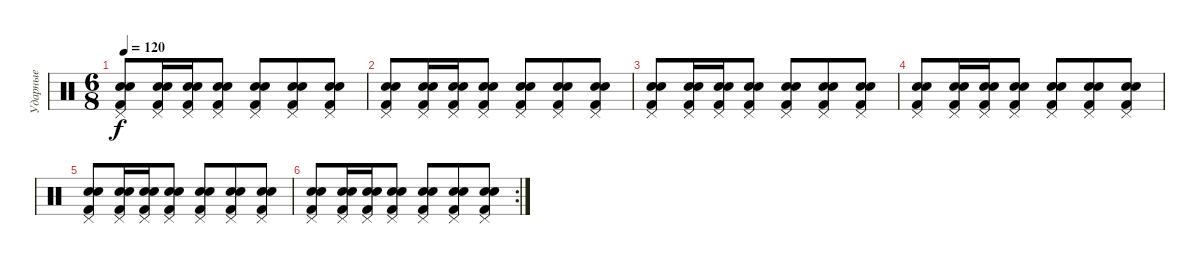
\track ("Ударные" "Ударные") {instrument percussion}
\staff {score}
\articulation defaults
\ts (6 8)
\tempo 120
\clef neutral
\ks c
("Snare (hit) 2" "Pedal Hi-Hat (hit)" "Electric Snare (hit)" "Kick (hit) 2").8{dy f} ("Snare (hit) 2" "Pedal Hi-Hat (hit)" "Electric Snare (hit)" "Kick (hit) 2").16 ("Snare (hit) 2" "Pedal Hi-Hat (hit)" "Electric Snare (hit)" "Kick (hit) 2").16 ("Snare (hit) 2" "Pedal Hi-Hat (hit)" "Electric Snare (hit)" "Kick (hit) 2").8 ("Snare (hit) 2" "Pedal Hi-Hat (hit)" "Electric Snare (hit)" "Kick (hit) 2").8 ("Snare (hit) 2" "Pedal Hi-Hat (hit)" "Electric Snare (hit)" "Kick (hit) 2").8 ("Snare (hit) 2" "Pedal Hi-Hat (hit)" "Electric Snare (hit)" "Kick (hit) 2").8 |
("Snare (hit) 2" "Pedal Hi-Hat (hit)" "Electric Snare (hit)" "Kick (hit) 2").8 ("Snare (hit) 2" "Pedal Hi-Hat (hit)" "Electric Snare (hit)" "Kick (hit) 2").16 ("Snare (hit) 2" "Pedal Hi-Hat (hit)" "Electric Snare (hit)" "Kick (hit) 2").16 ("Snare (hit) 2" "Pedal Hi-Hat (hit)" "Electric Snare (hit)" "Kick (hit) 2").8 ("Snare (hit) 2" "Pedal Hi-Hat (hit)" "Electric Snare (hit)" "Kick (hit) 2").8 ("Snare (hit) 2" "Pedal Hi-Hat (hit)" "Electric Snare (hit)" "Kick (hit) 2").8 ("Snare (hit) 2" "Pedal Hi-Hat (hit)" "Electric Snare (hit)" "Kick (hit) 2").8 |
("Snare (hit) 2" "Pedal Hi-Hat (hit)" "Electric Snare (hit)" "Kick (hit) 2").8 ("Snare (hit) 2" "Pedal Hi-Hat (hit)" "Electric Snare (hit)" "Kick (hit) 2").16 ("Snare (hit) 2" "Pedal Hi-Hat (hit)" "Electric Snare (hit)" "Kick (hit) 2").16 ("Snare (hit) 2" "Pedal Hi-Hat (hit)" "Electric Snare (hit)" "Kick (hit) 2").8 ("Snare (hit) 2" "Pedal Hi-Hat (hit)" "Electric Snare (hit)" "Kick (hit) 2").8 ("Snare (hit) 2" "Pedal Hi-Hat (hit)" "Electric Snare (hit)" "Kick (hit) 2").8 ("Snare (hit) 2" "Pedal Hi-Hat (hit)" "Electric Snare (hit)" "Kick (hit) 2").8 |
("Snare (hit) 2" "Pedal Hi-Hat (hit)" "Electric Snare (hit)" "Kick (hit) 2").8 ("Snare (hit) 2" "Pedal Hi-Hat (hit)" "Electric Snare (hit)" "Kick (hit) 2").16 ("Snare (hit) 2" "Pedal Hi-Hat (hit)" "Electric Snare (hit)" "Kick (hit) 2").16 ("Snare (hit) 2" "Pedal Hi-Hat (hit)" "Electric Snare (hit)" "Kick (hit) 2").8 ("Snare (hit) 2" "Pedal Hi-Hat (hit)" "Electric Snare (hit)" "Kick (hit) 2").8 ("Snare (hit) 2" "Pedal Hi-Hat (hit)" "Electric Snare (hit)" "Kick (hit) 2").8 ("Snare (hit) 2" "Pedal Hi-Hat (hit)" "Electric Snare (hit)" "Kick (hit) 2").8 |
("Snare (hit) 2" "Pedal Hi-Hat (hit)" "Electric Snare (hit)" "Kick (hit) 2").8 ("Snare (hit) 2" "Pedal Hi-Hat (hit)" "Electric Snare (hit)" "Kick (hit) 2").16 ("Snare (hit) 2" "Pedal Hi-Hat (hit)" "Electric Snare (hit)" "Kick (hit) 2").16 ("Snare (hit) 2" "Pedal Hi-Hat (hit)" "Electric Snare (hit)" "Kick (hit) 2").8 ("Snare (hit) 2" "Pedal Hi-Hat (hit)" "Electric Snare (hit)" "Kick (hit) 2").8 ("Snare (hit) 2" "Pedal Hi-Hat (hit)" "Electric Snare (hit)" "Kick (hit) 2").8 ("Snare (hit) 2" "Pedal Hi-Hat (hit)" "Electric Snare (hit)" "Kick (hit) 2").8 |
\rc 2
("Snare (hit) 2" "Pedal Hi-Hat (hit)" "Electric Snare (hit)" "Kick (hit) 2").8 ("Snare (hit) 2" "Pedal Hi-Hat (hit)" "Electric Snare (hit)" "Kick (hit) 2").16 ("Snare (hit) 2" "Pedal Hi-Hat (hit)" "Electric Snare (hit)" "Kick (hit) 2").16 ("Snare (hit) 2" "Pedal Hi-Hat (hit)" "Electric Snare (hit)" "Kick (hit) 2").8 ("Snare (hit) 2" "Pedal Hi-Hat (hit)" "Electric Snare (hit)" "Kick (hit) 2").8 ("Snare (hit) 2" "Pedal Hi-Hat (hit)" "Electric Snare (hit)" "Kick (hit) 2").8 ("Snare (hit) 2" "Pedal Hi-Hat (hit)" "Electric Snare (hit)" "Kick (hit) 2").8
